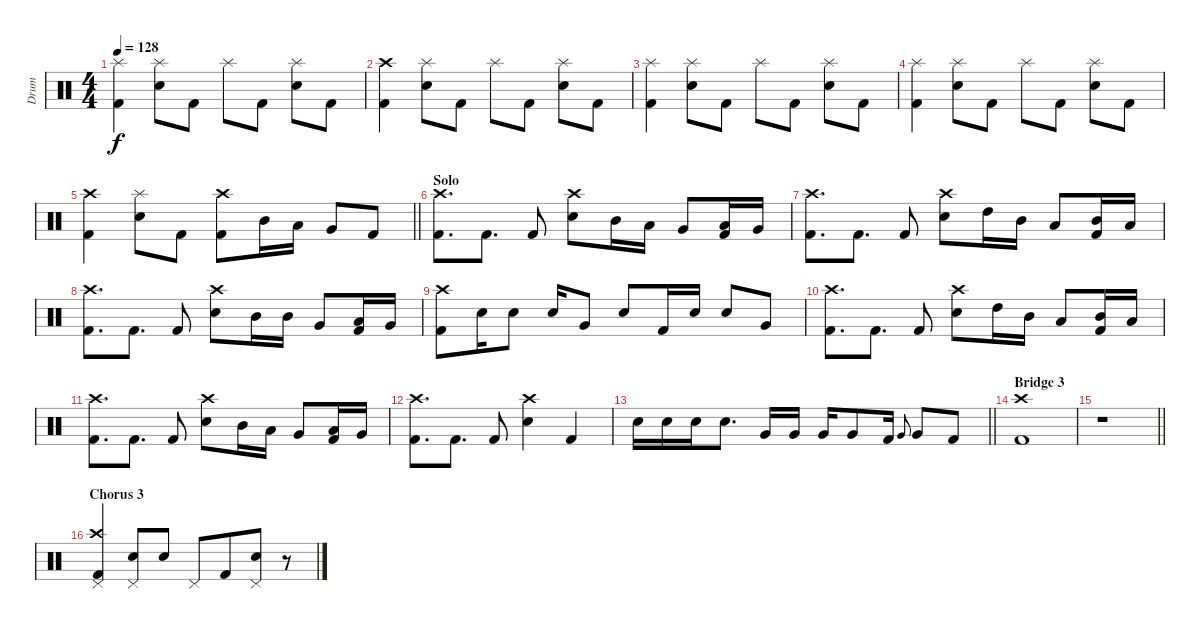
\track ("Drum" "Drum") {instrument percussion}
\staff {score}
\articulation defaults
\ts (4 4)
\tempo 128
\clef neutral
\ks c
("Splash (hit)" "Kick (hit) 2").4{dy f} ("Splash (hit)" "Electric Snare (hit)").8 "Kick (hit) 2".8 "Splash (hit)".8 "Kick (hit) 2".8 ("Splash (hit)" "Electric Snare (hit)").8 "Kick (hit) 2".8 |
("Crash high (hit)" "Kick (hit) 2").4 ("Splash (hit)" "Electric Snare (hit)").8 "Kick (hit) 2".8 "Splash (hit)".8 "Kick (hit) 2".8 ("Splash (hit)" "Electric Snare (hit)").8 "Kick (hit) 2".8 |
("Splash (hit)" "Kick (hit) 2").4 ("Splash (hit)" "Electric Snare (hit)").8 "Kick (hit) 2".8 "Splash (hit)".8 "Kick (hit) 2".8 ("Splash (hit)" "Electric Snare (hit)").8 "Kick (hit) 2".8 |
("Splash (hit)" "Kick (hit) 2").4 ("Splash (hit)" "Electric Snare (hit)").8 "Kick (hit) 2".8 "Splash (hit)".8 "Kick (hit) 2".8 ("Splash (hit)" "Electric Snare (hit)").8 "Kick (hit) 2".8 |
\barLineRight lightlight
("Crash high (hit)" "Kick (hit) 2").4 ("Splash (hit)" "Electric Snare (hit)").8 "Kick (hit) 2".8 ("Crash high (hit)" "Kick (hit) 2").8 "Mid Tom (hit)".16 "Low Tom (hit)".16 "Very Low Tom (hit)".8 "Kick (hit) 2".8 |
\section ("" "Solo")
("Crash high (hit)" "Kick (hit) 2").8{d} "Kick (hit) 2".8{d} "Kick (hit) 2".8 ("Crash high (hit)" "Electric Snare (hit)").8 "Mid Tom (hit)".16 "Low Tom (hit)".16 "Very Low Tom (hit)".8 ("Low Tom (hit)" "Kick (hit) 2").16 "Very Low Tom (hit)".16 |
("Crash high (hit)" "Kick (hit) 2").8{d} "Kick (hit) 2".8{d} "Kick (hit) 2".8 ("Crash high (hit)" "Electric Snare (hit)").8 "High Tom (hit)".16 "Mid Tom (hit)".16 "Low Tom (hit)".8 ("Mid Tom (hit)" "Kick (hit) 2").16 "Low Tom (hit)".16 |
("Crash high (hit)" "Kick (hit) 2").8{d} "Kick (hit) 2".8{d} "Kick (hit) 2".8 ("Crash high (hit)" "Electric Snare (hit)").8 "Mid Tom (hit)".16 "Mid Tom (hit)".16 "Very Low Tom (hit)".8 ("Low Tom (hit)" "Kick (hit) 2").16 "Very Low Tom (hit)".16 |
("Crash high (hit)" "Kick (hit) 2").8 "Electric Snare (hit)".16 "Electric Snare (hit)".8 "Electric Snare (hit)".16 "Very Low Tom (hit)".8 "Electric Snare (hit)".8 "Kick (hit) 2".16 "Electric Snare (hit)".16 "Electric Snare (hit)".8 "Very Low Tom (hit)".8 |
("Crash high (hit)" "Kick (hit) 2").8{d} "Kick (hit) 2".8{d} "Kick (hit) 2".8 ("Crash high (hit)" "Electric Snare (hit)").8 "High Tom (hit)".16 "Mid Tom (hit)".16 "Low Tom (hit)".8 ("Mid Tom (hit)" "Kick (hit) 2").16 "Low Tom (hit)".16 |
("Crash high (hit)" "Kick (hit) 2").8{d} "Kick (hit) 2".8{d} "Kick (hit) 2".8 ("Crash high (hit)" "Electric Snare (hit)").8 "Mid Tom (hit)".16 "Low Tom (hit)".16 "Very Low Tom (hit)".8 ("Low Tom (hit)" "Kick (hit) 2").16 "Very Low Tom (hit)".16 |
("Crash high (hit)" "Kick (hit) 2").8{d} "Kick (hit) 2".8{d} "Kick (hit) 2".8 ("Crash high (hit)" "Electric Snare (hit)").4 "Kick (hit) 2".4 |
\barLineRight lightlight "Electric Snare (hit)".16 "Electric Snare (hit)".16 "Electric Snare (hit)".16 "Electric Snare (hit)".8{d} "Very Low Tom (hit)".16 "Very Low Tom (hit)".16 "Very Low Tom (hit)".16 "Very Low Tom (hit)".8 "Kick (hit) 2".16 "Very Low Tom (hit)".8{gr onbeat} "Very Low Tom (hit)".8 "Kick (hit) 2".8
|
\section ("" "Bridge 3")
("Crash high (hit)" "Kick (hit) 2").1 |
\barLineRight lightlight
r.1 |
\section ("" "Chorus 3")
("Crash high (hit)" "Pedal Hi-Hat (hit)" "Kick (hit) 2").4 ("Electric Snare (hit)" "Pedal Hi-Hat (hit)").8 "Electric Snare (hit)".8 "Pedal Hi-Hat (hit)".8 "Kick (hit) 2".8{beam merge} ("Electric Snare (hit)" "Pedal Hi-Hat (hit)").8 r.8
